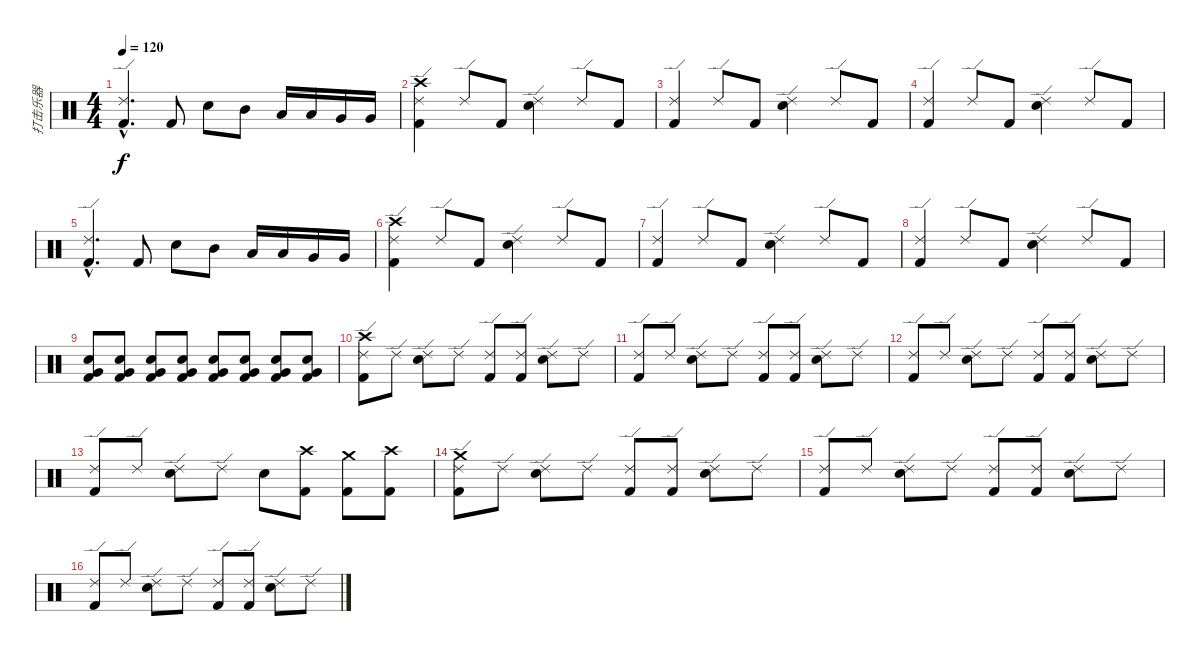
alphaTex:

\track ("打击乐器" "打击乐器") {instrument percussion}
\staff {score}
\articulation defaults
\ts (4 4)
\tempo 120
\clef neutral
\ks c
("Ride (edge) 2"{hac} "Kick (hit) 2"{hac}).4{d dy f} "Kick (hit) 2".8 "Electric Snare (hit)".8 "Mid Tom (hit)".8 "Low Tom (hit)".16 "Low Tom (hit)".16 "Very Low Tom (hit)".16 "Very Low Tom (hit)".16 |
("Ride (edge) 2" "Crash high (hit)" "Kick (hit) 2").4 "Ride (edge) 2".8 "Kick (hit) 2".8 ("Ride (edge) 2" "Electric Snare (hit)").4 "Ride (edge) 2".8 "Kick (hit) 2".8 |
("Ride (edge) 2" "Kick (hit) 2").4 "Ride (edge) 2".8 "Kick (hit) 2".8 ("Ride (edge) 2" "Electric Snare (hit)").4 "Ride (edge) 2".8 "Kick (hit) 2".8 |
("Ride (edge) 2" "Kick (hit) 2").4 "Ride (edge) 2".8 "Kick (hit) 2".8 ("Ride (edge) 2" "Electric Snare (hit)").4 "Ride (edge) 2".8 "Kick (hit) 2".8 |
("Ride (edge) 2"{hac} "Kick (hit) 2"{hac}).4{d} "Kick (hit) 2".8 "Electric Snare (hit)".8 "Mid Tom (hit)".8 "Low Tom (hit)".16 "Low Tom (hit)".16 "Very Low Tom (hit)".16 "Very Low Tom (hit)".16 |
("Ride (edge) 2" "Crash high (hit)" "Kick (hit) 2").4 "Ride (edge) 2".8 "Kick (hit) 2".8 ("Ride (edge) 2" "Electric Snare (hit)").4 "Ride (edge) 2".8 "Kick (hit) 2".8 |
("Ride (edge) 2" "Kick (hit) 2").4 "Ride (edge) 2".8 "Kick (hit) 2".8 ("Ride (edge) 2" "Electric Snare (hit)").4 "Ride (edge) 2".8 "Kick (hit) 2".8 |
("Ride (edge) 2" "Kick (hit) 2").4 "Ride (edge) 2".8 "Kick (hit) 2".8 ("Ride (edge) 2" "Electric Snare (hit)").4 "Ride (edge) 2".8 "Kick (hit) 2".8 |
("Very Low Tom (hit)" "Electric Snare (hit)" "Kick (hit) 2").8{volume 13} ("Very Low Tom (hit)" "Electric Snare (hit)" "Kick (hit) 2").8{volume 14} ("Very Low Tom (hit)" "Electric Snare (hit)" "Kick (hit) 2").8{volume 14} ("Very Low Tom (hit)" "Electric Snare (hit)" "Kick (hit) 2").8{volume 14} ("Very Low Tom (hit)" "Electric Snare (hit)" "Kick (hit) 2").8{volume 15} ("Very Low Tom (hit)" "Electric Snare (hit)" "Kick (hit) 2").8{volume 15} ("Very Low Tom (hit)" "Electric Snare (hit)" "Kick (hit) 2").8{volume 15} ("Very Low Tom (hit)" "Electric Snare (hit)" "Kick (hit) 2").8{volume 16} |
("Ride (edge) 2" "Crash high (hit)" "Kick (hit) 2").8{volume 13} "Ride (edge) 2".8 ("Ride (edge) 2" "Electric Snare (hit)").8 "Ride (edge) 2".8 ("Ride (edge) 2" "Kick (hit) 2").8 ("Ride (edge) 2" "Kick (hit) 2").8 ("Ride (edge) 2" "Electric Snare (hit)").8 "Ride (edge) 2".8 |
("Ride (edge) 2" "Kick (hit) 2").8 "Ride (edge) 2".8 ("Ride (edge) 2" "Electric Snare (hit)").8 "Ride (edge) 2".8 ("Ride (edge) 2" "Kick (hit) 2").8 ("Ride (edge) 2" "Kick (hit) 2").8 ("Ride (edge) 2" "Electric Snare (hit)").8 "Ride (edge) 2".8 |
("Ride (edge) 2" "Kick (hit) 2").8 "Ride (edge) 2".8 ("Ride (edge) 2" "Electric Snare (hit)").8 "Ride (edge) 2".8 ("Ride (edge) 2" "Kick (hit) 2").8 ("Ride (edge) 2" "Kick (hit) 2").8 ("Ride (edge) 2" "Electric Snare (hit)").8 "Ride (edge) 2".8 |
("Ride (edge) 2" "Kick (hit) 2").8 "Ride (edge) 2".8 ("Ride (edge) 2" "Electric Snare (hit)").8 "Ride (edge) 2".8 "Electric Snare (hit)".8 ("Crash high (hit)" "Kick (hit) 2").8 ("Crash medium (hit)" "Kick (hit) 2").8 ("Crash high (hit)" "Kick (hit) 2").8 |
("Ride (edge) 2" "Crash medium (hit)" "Kick (hit) 2").8 "Ride (edge) 2".8 ("Ride (edge) 2" "Electric Snare (hit)").8 "Ride (edge) 2".8 ("Ride (edge) 2" "Kick (hit) 2").8 ("Ride (edge) 2" "Kick (hit) 2").8 ("Ride (edge) 2" "Electric Snare (hit)").8 "Ride (edge) 2".8 |
("Ride (edge) 2" "Kick (hit) 2").8 "Ride (edge) 2".8 ("Ride (edge) 2" "Electric Snare (hit)").8 "Ride (edge) 2".8 ("Ride (edge) 2" "Kick (hit) 2").8 ("Ride (edge) 2" "Kick (hit) 2").8 ("Ride (edge) 2" "Electric Snare (hit)").8 "Ride (edge) 2".8 |
("Ride (edge) 2" "Kick (hit) 2").8 "Ride (edge) 2".8 ("Ride (edge) 2" "Electric Snare (hit)").8 "Ride (edge) 2".8 ("Ride (edge) 2" "Kick (hit) 2").8 ("Ride (edge) 2" "Kick (hit) 2").8 ("Ride (edge) 2" "Electric Snare (hit)").8 "Ride (edge) 2".8
